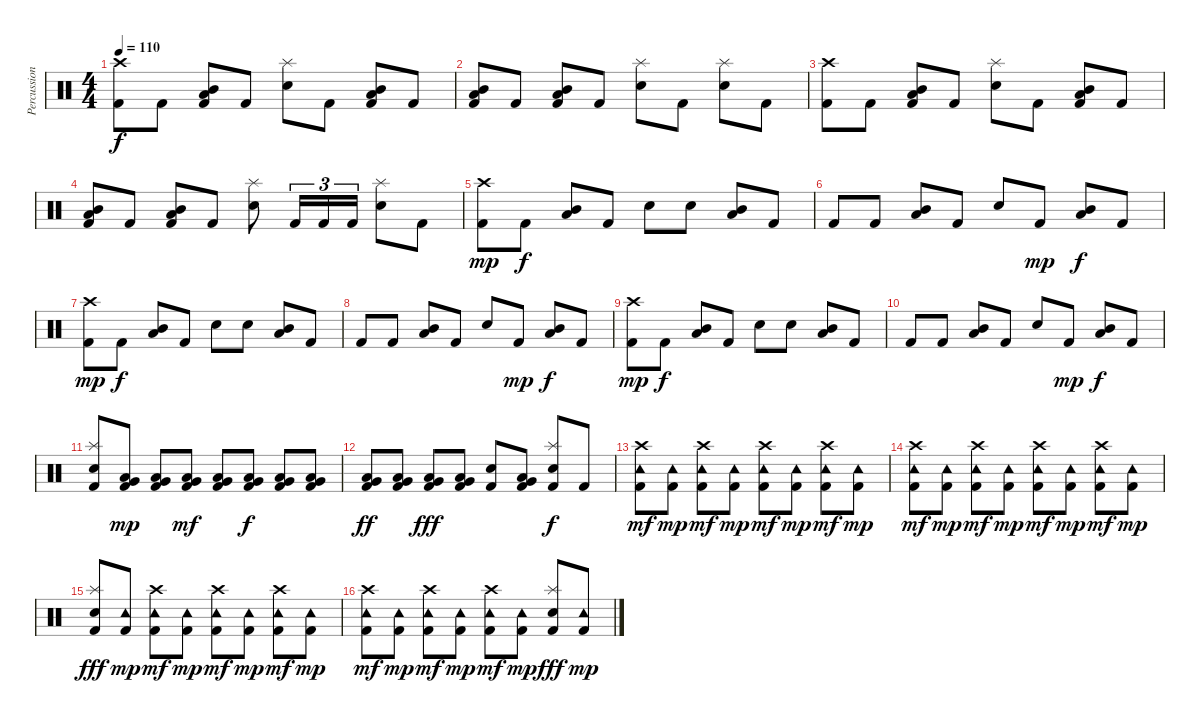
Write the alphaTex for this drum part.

\track ("Percussion" "Percussion") {instrument percussion}
\staff {score}
\articulation defaults
\ts (4 4)
\tempo 110
\clef neutral
\ks c
("Crash high (hit)" "Kick (hit) 2").8{dy f} "Kick (hit) 2".8 ("Mid Tom (hit)" "Low Tom (hit)" "Kick (hit) 2").8 "Kick (hit) 2".8 ("Splash (hit)" "Snare (hit) 2").8 "Kick (hit) 2".8 ("Mid Tom (hit)" "Low Tom (hit)" "Kick (hit) 2").8 "Kick (hit) 2".8 |
("Mid Tom (hit)" "Low Tom (hit)" "Kick (hit) 2").8 "Kick (hit) 2".8 ("Mid Tom (hit)" "Low Tom (hit)" "Kick (hit) 2").8 "Kick (hit) 2".8 ("Splash (hit)" "Snare (hit) 2").8 "Kick (hit) 2".8 ("Splash (hit)" "Snare (hit) 2").8 "Kick (hit) 2".8 |
("Crash high (hit)" "Kick (hit) 2").8 "Kick (hit) 2".8 ("Mid Tom (hit)" "Low Tom (hit)" "Kick (hit) 2").8 "Kick (hit) 2".8 ("Splash (hit)" "Snare (hit) 2").8 "Kick (hit) 2".8 ("Mid Tom (hit)" "Low Tom (hit)" "Kick (hit) 2").8 "Kick (hit) 2".8 |
("Mid Tom (hit)" "Low Tom (hit)" "Kick (hit) 2").8 "Kick (hit) 2".8 ("Mid Tom (hit)" "Low Tom (hit)" "Kick (hit) 2").8 "Kick (hit) 2".8 ("Splash (hit)" "Snare (hit) 2").8 "Kick (hit) 2".16{tu (3 2)} "Kick (hit) 2".16{tu (3 2)} "Kick (hit) 2".16{tu (3 2)} ("Splash (hit)" "Snare (hit) 2").8 "Kick (hit) 2".8 |
("Crash high (hit)" "Kick (hit) 2").8{dy mp} "Kick (hit) 2".8{dy f} ("Low Tom (hit)" "Mid Tom (hit)").8 "Kick (hit) 2".8 "Snare (hit) 2".8 "Snare (hit) 2".8 ("Low Tom (hit)" "Mid Tom (hit)").8 "Kick (hit) 2".8 |
"Kick (hit) 2".8 "Kick (hit) 2".8 ("Low Tom (hit)" "Mid Tom (hit)").8 "Kick (hit) 2".8 "Snare (hit) 2".8 "Kick (hit) 2".8{dy mp} ("Low Tom (hit)" "Mid Tom (hit)").8{dy f} "Kick (hit) 2".8 |
("Crash high (hit)" "Kick (hit) 2").8{dy mp} "Kick (hit) 2".8{dy f} ("Low Tom (hit)" "Mid Tom (hit)").8 "Kick (hit) 2".8 "Snare (hit) 2".8 "Snare (hit) 2".8 ("Low Tom (hit)" "Mid Tom (hit)").8 "Kick (hit) 2".8 |
"Kick (hit) 2".8 "Kick (hit) 2".8 ("Low Tom (hit)" "Mid Tom (hit)").8 "Kick (hit) 2".8 "Snare (hit) 2".8 "Kick (hit) 2".8{dy mp} ("Low Tom (hit)" "Mid Tom (hit)").8{dy f} "Kick (hit) 2".8 |
("Crash high (hit)" "Kick (hit) 2").8{dy mp} "Kick (hit) 2".8{dy f} ("Low Tom (hit)" "Mid Tom (hit)").8 "Kick (hit) 2".8 "Snare (hit) 2".8 "Snare (hit) 2".8 ("Low Tom (hit)" "Mid Tom (hit)").8 "Kick (hit) 2".8 |
"Kick (hit) 2".8 "Kick (hit) 2".8 ("Low Tom (hit)" "Mid Tom (hit)").8 "Kick (hit) 2".8 "Snare (hit) 2".8 "Kick (hit) 2".8{dy mp} ("Low Tom (hit)" "Mid Tom (hit)").8{dy f} "Kick (hit) 2".8 |
("Splash (hit)" "Snare (hit) 2" "Kick (hit) 2").8 ("Low Tom (hit)" "Very Low Tom (hit)" "Kick (hit) 2").8{dy mp} ("Low Tom (hit)" "Very Low Tom (hit)" "Kick (hit) 2").8 ("Low Tom (hit)" "Very Low Tom (hit)" "Kick (hit) 2").8{dy mf} ("Low Tom (hit)" "Very Low Tom (hit)" "Kick (hit) 2").8 ("Low Tom (hit)" "Very Low Tom (hit)" "Kick (hit) 2").8{dy f} ("Low Tom (hit)" "Very Low Tom (hit)" "Kick (hit) 2").8 ("Low Tom (hit)" "Very Low Tom (hit)" "Kick (hit) 2").8 |
("Low Tom (hit)" "Very Low Tom (hit)" "Kick (hit) 2").8{dy ff} ("Low Tom (hit)" "Very Low Tom (hit)" "Kick (hit) 2").8 ("Low Tom (hit)" "Very Low Tom (hit)" "Kick (hit) 2").8{dy fff} ("Low Tom (hit)" "Very Low Tom (hit)" "Kick (hit) 2").8 ("Snare (hit) 2" "Kick (hit) 2").8 ("Low Tom (hit)" "Very Low Tom (hit)" "Kick (hit) 2").8 ("Splash (hit)" "Snare (hit) 2" "Kick (hit) 2").8{dy f} "Kick (hit) 2".8 |
("Crash high (hit)" "Tambourine (hit)" "Kick (hit) 2").8{dy mf} ("Tambourine (hit)" "Kick (hit) 2").8{dy mp} ("Crash high (hit)" "Tambourine (hit)" "Kick (hit) 2").8{dy mf} ("Tambourine (hit)" "Kick (hit) 2").8{dy mp} ("Crash high (hit)" "Tambourine (hit)" "Kick (hit) 2").8{dy mf} ("Tambourine (hit)" "Kick (hit) 2").8{dy mp} ("Crash high (hit)" "Tambourine (hit)" "Kick (hit) 2").8{dy mf} ("Tambourine (hit)" "Kick (hit) 2").8{dy mp} |
("Crash high (hit)" "Tambourine (hit)" "Kick (hit) 2").8{dy mf} ("Tambourine (hit)" "Kick (hit) 2").8{dy mp} ("Crash high (hit)" "Tambourine (hit)" "Kick (hit) 2").8{dy mf} ("Tambourine (hit)" "Kick (hit) 2").8{dy mp} ("Crash high (hit)" "Tambourine (hit)" "Kick (hit) 2").8{dy mf} ("Tambourine (hit)" "Kick (hit) 2").8{dy mp} ("Crash high (hit)" "Tambourine (hit)" "Kick (hit) 2").8{dy mf} ("Tambourine (hit)" "Kick (hit) 2").8{dy mp} |
("Splash (hit)" "Snare (hit) 2" "Kick (hit) 2").8{dy fff} ("Tambourine (hit)" "Kick (hit) 2").8{dy mp} ("Crash high (hit)" "Tambourine (hit)" "Kick (hit) 2").8{dy mf} ("Tambourine (hit)" "Kick (hit) 2").8{dy mp} ("Crash high (hit)" "Tambourine (hit)" "Kick (hit) 2").8{dy mf} ("Tambourine (hit)" "Kick (hit) 2").8{dy mp} ("Crash high (hit)" "Tambourine (hit)" "Kick (hit) 2").8{dy mf} ("Tambourine (hit)" "Kick (hit) 2").8{dy mp} |
("Crash high (hit)" "Tambourine (hit)" "Kick (hit) 2").8{dy mf} ("Tambourine (hit)" "Kick (hit) 2").8{dy mp} ("Crash high (hit)" "Tambourine (hit)" "Kick (hit) 2").8{dy mf} ("Tambourine (hit)" "Kick (hit) 2").8{dy mp} ("Crash high (hit)" "Tambourine (hit)" "Kick (hit) 2").8{dy mf} ("Tambourine (hit)" "Kick (hit) 2").8{dy mp} ("Splash (hit)" "Snare (hit) 2" "Kick (hit) 2").8{dy fff} ("Tambourine (hit)" "Kick (hit) 2").8{dy mp}
